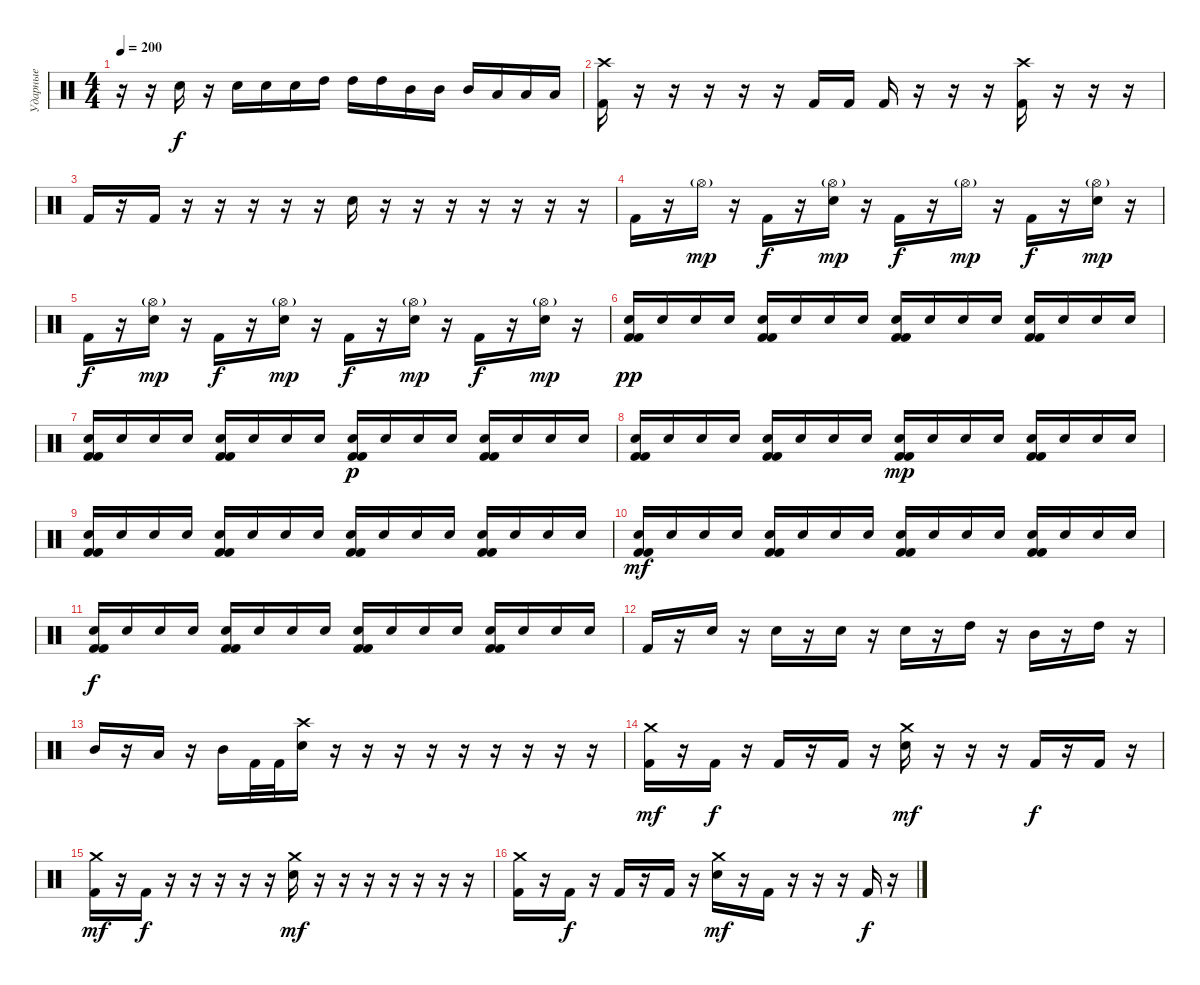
\track ("Ударные" "Ударные") {instrument percussion bank 101}
\staff {score}
\articulation defaults
\ts (4 4)
\tempo 200
\clef neutral
\ks c
r.16{dy f} r.16 "Electric Snare (hit)".16 r.16 "Electric Snare (hit)".16 "Electric Snare (hit)".16 "Electric Snare (hit)".16 "High Tom (hit)".16 "High Tom (hit)".16 "High Tom (hit)".16 "Mid Tom (hit)".16 "Mid Tom (hit)".16 "Mid Tom (hit)".16 "Low Tom (hit)".16 "Low Tom (hit)".16 "Low Tom (hit)".16 |
("Crash high (hit)" "Kick (hit) 2").16 r.16 r.16 r.16 r.16 r.16 "Kick (hit) 2".16 "Kick (hit) 2".16 "Kick (hit) 2".16 r.16 r.16 r.16 ("Crash high (hit)" "Kick (hit) 2").16 r.16 r.16 r.16 |
"Kick (hit) 2".16 r.16 "Kick (hit) 2".16 r.16 r.16 r.16 r.16 r.16 "Electric Snare (hit)".16 r.16 r.16 r.16 r.16 r.16 r.16 r.16 |
"Kick (hit) 2".16 r.16 "Hi-Hat (open)"{g}.16{dy mp} r.16 "Kick (hit) 2".16{dy f} r.16 ("Hi-Hat (open)"{g} "Electric Snare (hit)").16{dy mp} r.16 "Kick (hit) 2".16{dy f} r.16 "Hi-Hat (open)"{g}.16{dy mp} r.16 "Kick (hit) 2".16{dy f} r.16 ("Hi-Hat (open)"{g} "Electric Snare (hit)").16{dy mp} r.16 |
"Kick (hit) 2".16{dy f} r.16 ("Hi-Hat (open)"{g} "Electric Snare (hit)").16{dy mp} r.16 "Kick (hit) 2".16{dy f} r.16 ("Hi-Hat (open)"{g} "Electric Snare (hit)").16{dy mp} r.16 "Kick (hit) 2".16{dy f} r.16 ("Hi-Hat (open)"{g} "Electric Snare (hit)").16{dy mp} r.16 "Kick (hit) 2".16{dy f} r.16 ("Hi-Hat (open)"{g} "Electric Snare (hit)").16{dy mp} r.16 |
("Electric Snare (hit)" "Kick (hit) 2" "Kick (hit) 2").16{dy pp} "Electric Snare (hit)".16 "Electric Snare (hit)".16 "Electric Snare (hit)".16 ("Electric Snare (hit)" "Kick (hit) 2" "Kick (hit) 2").16 "Electric Snare (hit)".16 "Electric Snare (hit)".16 "Electric Snare (hit)".16 ("Electric Snare (hit)" "Kick (hit) 2" "Kick (hit) 2").16 "Electric Snare (hit)".16 "Electric Snare (hit)".16 "Electric Snare (hit)".16 ("Electric Snare (hit)" "Kick (hit) 2" "Kick (hit) 2").16 "Electric Snare (hit)".16 "Electric Snare (hit)".16 "Electric Snare (hit)".16 |
("Electric Snare (hit)" "Kick (hit) 2" "Kick (hit) 2").16 "Electric Snare (hit)".16 "Electric Snare (hit)".16 "Electric Snare (hit)".16 ("Electric Snare (hit)" "Kick (hit) 2" "Kick (hit) 2").16 "Electric Snare (hit)".16 "Electric Snare (hit)".16 "Electric Snare (hit)".16 ("Electric Snare (hit)" "Kick (hit) 2" "Kick (hit) 2").16{dy p} "Electric Snare (hit)".16 "Electric Snare (hit)".16 "Electric Snare (hit)".16 ("Electric Snare (hit)" "Kick (hit) 2" "Kick (hit) 2").16 "Electric Snare (hit)".16 "Electric Snare (hit)".16 "Electric Snare (hit)".16 |
("Electric Snare (hit)" "Kick (hit) 2" "Kick (hit) 2").16 "Electric Snare (hit)".16 "Electric Snare (hit)".16 "Electric Snare (hit)".16 ("Electric Snare (hit)" "Kick (hit) 2" "Kick (hit) 2").16 "Electric Snare (hit)".16 "Electric Snare (hit)".16 "Electric Snare (hit)".16 ("Electric Snare (hit)" "Kick (hit) 2" "Kick (hit) 2").16{dy mp} "Electric Snare (hit)".16 "Electric Snare (hit)".16 "Electric Snare (hit)".16 ("Electric Snare (hit)" "Kick (hit) 2" "Kick (hit) 2").16 "Electric Snare (hit)".16 "Electric Snare (hit)".16 "Electric Snare (hit)".16 |
("Electric Snare (hit)" "Kick (hit) 2" "Kick (hit) 2").16 "Electric Snare (hit)".16 "Electric Snare (hit)".16 "Electric Snare (hit)".16 ("Electric Snare (hit)" "Kick (hit) 2" "Kick (hit) 2").16 "Electric Snare (hit)".16 "Electric Snare (hit)".16 "Electric Snare (hit)".16 ("Electric Snare (hit)" "Kick (hit) 2" "Kick (hit) 2").16 "Electric Snare (hit)".16 "Electric Snare (hit)".16 "Electric Snare (hit)".16 ("Electric Snare (hit)" "Kick (hit) 2" "Kick (hit) 2").16 "Electric Snare (hit)".16 "Electric Snare (hit)".16 "Electric Snare (hit)".16 |
("Electric Snare (hit)" "Kick (hit) 2" "Kick (hit) 2").16{dy mf} "Electric Snare (hit)".16 "Electric Snare (hit)".16 "Electric Snare (hit)".16 ("Electric Snare (hit)" "Kick (hit) 2" "Kick (hit) 2").16 "Electric Snare (hit)".16 "Electric Snare (hit)".16 "Electric Snare (hit)".16 ("Electric Snare (hit)" "Kick (hit) 2" "Kick (hit) 2").16 "Electric Snare (hit)".16 "Electric Snare (hit)".16 "Electric Snare (hit)".16 ("Electric Snare (hit)" "Kick (hit) 2" "Kick (hit) 2").16 "Electric Snare (hit)".16 "Electric Snare (hit)".16 "Electric Snare (hit)".16 |
("Electric Snare (hit)" "Kick (hit) 2" "Kick (hit) 2").16{dy f} "Electric Snare (hit)".16 "Electric Snare (hit)".16 "Electric Snare (hit)".16 ("Electric Snare (hit)" "Kick (hit) 2" "Kick (hit) 2").16 "Electric Snare (hit)".16 "Electric Snare (hit)".16 "Electric Snare (hit)".16 ("Electric Snare (hit)" "Kick (hit) 2" "Kick (hit) 2").16 "Electric Snare (hit)".16 "Electric Snare (hit)".16 "Electric Snare (hit)".16 ("Electric Snare (hit)" "Kick (hit) 2" "Kick (hit) 2").16 "Electric Snare (hit)".16 "Electric Snare (hit)".16 "Electric Snare (hit)".16 |
"Kick (hit) 2".16 r.16 "Electric Snare (hit)".16 r.16 "Electric Snare (hit)".16 r.16 "Electric Snare (hit)".16 r.16 "Electric Snare (hit)".16 r.16 "High Tom (hit)".16 r.16 "Mid Tom (hit)".16 r.16 "High Tom (hit)".16 r.16 |
"Mid Tom (hit)".16 r.16 "Low Tom (hit)".16 r.16 "Mid Tom (hit)".16 "Kick (hit) 2".32 "Kick (hit) 2".32 ("Crash high (hit)" "Electric Snare (hit)").16 r.16 r.16 r.16 r.16 r.16 r.16 r.16 r.16 r.16 |
("Crash medium (hit)" "Kick (hit) 2").16{dy mf} r.16 "Kick (hit) 2".16{dy f} r.16 "Kick (hit) 2".16 r.16 "Kick (hit) 2".16 r.16 ("Crash medium (hit)" "Electric Snare (hit)").16{dy mf} r.16 r.16 r.16 "Kick (hit) 2".16{dy f} r.16 "Kick (hit) 2".16 r.16 |
("Crash medium (hit)" "Kick (hit) 2").16{dy mf} r.16 "Kick (hit) 2".16{dy f} r.16 r.16 r.16 r.16 r.16 ("Crash medium (hit)" "Electric Snare (hit)").16{dy mf} r.16 r.16 r.16 r.16 r.16 r.16 r.16 |
("Crash medium (hit)" "Kick (hit) 2").16 r.16 "Kick (hit) 2".16{dy f} r.16 "Kick (hit) 2".16 r.16 "Kick (hit) 2".16 r.16 ("Crash medium (hit)" "Electric Snare (hit)").16{dy mf} r.16 "Kick (hit) 2".16 r.16 r.16 r.16 "Kick (hit) 2".16{dy f} r.16
